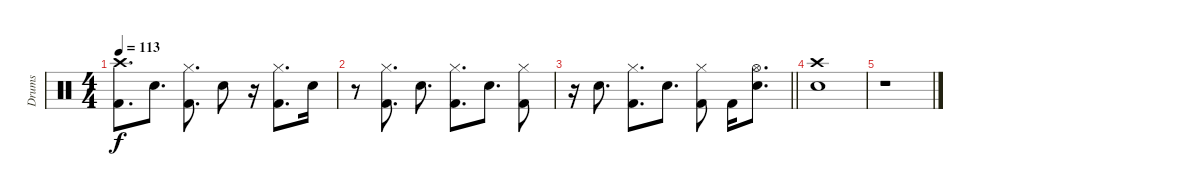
\track ("Drums" "Drums") {instrument percussion}
\staff {score}
\articulation defaults
\ts (4 4)
\tempo 113
\clef neutral
\ks c
("Crash high (hit)" "Kick (hit) 2").8{d dy f} "Electric Snare (hit)".8{d} ("Hi-Hat (closed)" "Kick (hit) 2").8{d} "Electric Snare (hit)".8 r.16 ("Hi-Hat (closed)" "Kick (hit) 2").8{d} "Electric Snare (hit)".16 |
r.8 ("Hi-Hat (closed)" "Kick (hit) 2").8{d} "Electric Snare (hit)".8{d} ("Hi-Hat (closed)" "Kick (hit) 2").8{d} "Electric Snare (hit)".8{d} ("Hi-Hat (closed)" "Kick (hit) 2").8 |
\barLineRight lightlight
r.16 "Electric Snare (hit)".8{d} ("Hi-Hat (closed)" "Kick (hit) 2").8{d} "Electric Snare (hit)".8{d} ("Hi-Hat (closed)" "Kick (hit) 2").8 "Kick (hit) 2".16 ("Hi-Hat (open)" "Electric Snare (hit)").8{d} |
("Crash high (hit)" "Electric Snare (hit)").1 |
r.1
